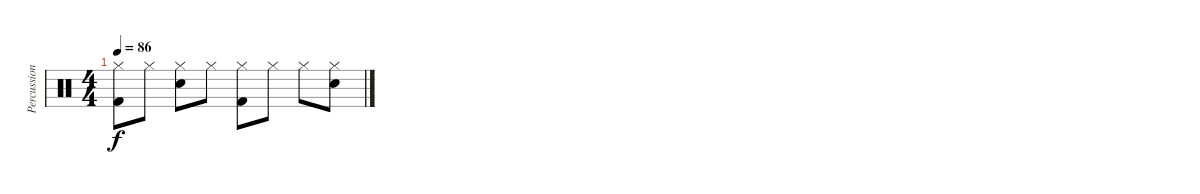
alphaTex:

\track ("Percussions" "Percussion") {instrument percussion}
\staff {score}
\articulation defaults
\ts (4 4)
\tempo 86
\clef neutral
\ks c
("Hi-Hat (closed)" "Kick (hit) 2").8{dy f} "Hi-Hat (closed)".8 ("Hi-Hat (closed)" "Snare (hit) 2").8 "Hi-Hat (closed)".8 ("Hi-Hat (closed)" "Kick (hit) 2").8 "Hi-Hat (closed)".8 "Hi-Hat (closed)".8 ("Hi-Hat (closed)" "Snare (hit) 2").8
